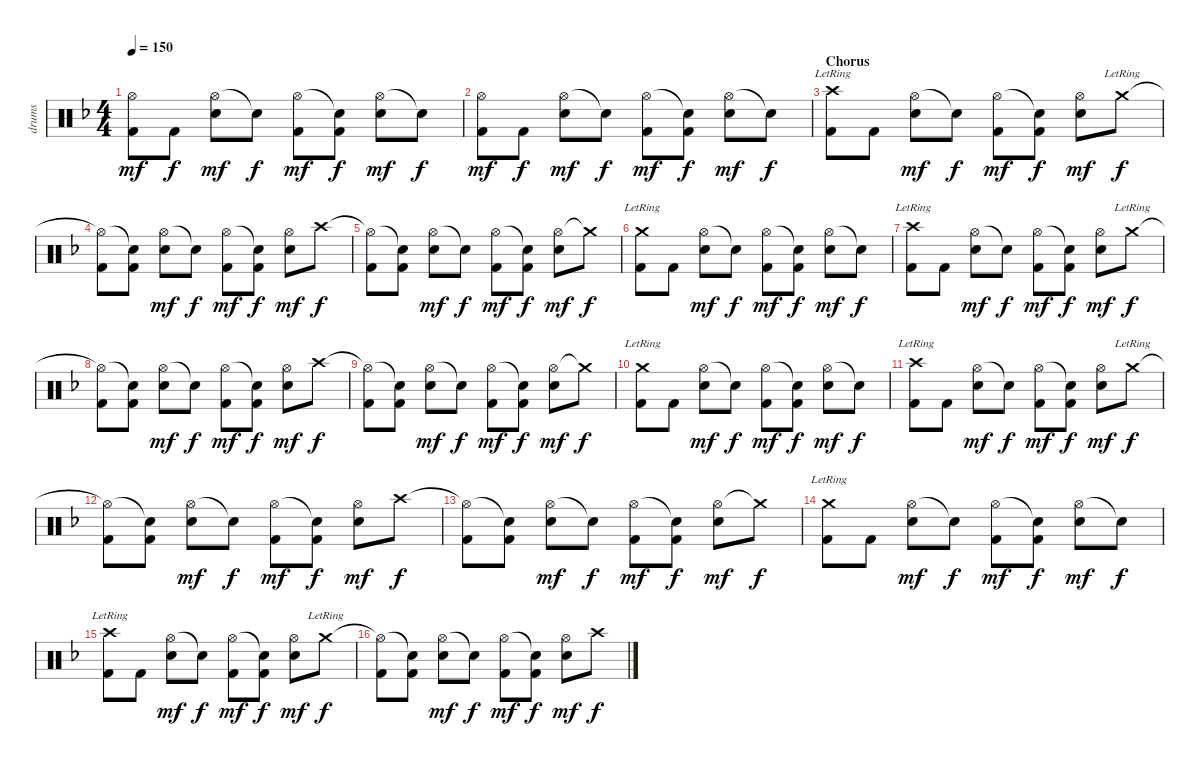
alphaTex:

\track ("drums" "drums") {instrument percussion}
\staff {score}
\articulation defaults
\ts (4 4)
\tempo 150
\clef neutral
\ks dminor
("Hi-Hat (open)" "Kick (hit) 2").8{dy mf} "Kick (hit) 2".8{dy f} ("Hi-Hat (open)" "Electric Snare (hit)").8{dy mf} "Snare (hit)"{t}.8{dy f} ("Hi-Hat (open)" "Kick (hit) 2").8{dy mf} ("Snare (hit)"{t} "Kick (hit) 2").8{dy f} ("Hi-Hat (open)" "Electric Snare (hit)").8{dy mf} "Snare (hit)"{t}.8{dy f} |
("Hi-Hat (open)" "Kick (hit) 2").8{dy mf} "Kick (hit) 2".8{dy f} ("Hi-Hat (open)" "Electric Snare (hit)").8{dy mf} "Snare (hit)"{t}.8{dy f} ("Hi-Hat (open)" "Kick (hit) 2").8{dy mf} ("Snare (hit)"{t} "Kick (hit) 2").8{dy f} ("Hi-Hat (open)" "Electric Snare (hit)").8{dy mf} "Snare (hit)"{t}.8{dy f} |
\section ("" "Chorus")
("Crash high (hit)"{lr} "Kick (hit) 2").8 "Kick (hit) 2".8 ("Hi-Hat (open)" "Electric Snare (hit)").8{dy mf} "Snare (hit)"{t}.8{dy f} ("Hi-Hat (open)" "Kick (hit) 2").8{dy mf} ("Snare (hit)"{t} "Kick (hit) 2").8{dy f} ("Hi-Hat (open)" "Electric Snare (hit)").8{dy mf} "Crash medium (hit)"{lr}.8{dy f} |
("Hi-Hat (open)"{t} "Kick (hit) 2").8 ("Snare (hit)"{t} "Kick (hit) 2").8 ("Hi-Hat (open)" "Electric Snare (hit)").8{dy mf} "Snare (hit)"{t}.8{dy f} ("Hi-Hat (open)" "Kick (hit) 2").8{dy mf} ("Snare (hit)"{t} "Kick (hit) 2").8{dy f} ("Hi-Hat (open)" "Electric Snare (hit)").8{dy mf} "Crash high (hit)".8{dy f} |
("Hi-Hat (open)"{t} "Kick (hit) 2").8 ("Snare (hit)"{t} "Kick (hit) 2").8 ("Hi-Hat (open)" "Electric Snare (hit)").8{dy mf} "Snare (hit)"{t}.8{dy f} ("Hi-Hat (open)" "Kick (hit) 2").8{dy mf} ("Snare (hit)"{t} "Kick (hit) 2").8{dy f} ("Hi-Hat (open)" "Electric Snare (hit)").8{dy mf} "Crash medium (hit)"{t}.8{dy f} |
("Crash medium (hit)"{lr} "Kick (hit) 2").8 "Kick (hit) 2".8 ("Hi-Hat (open)" "Electric Snare (hit)").8{dy mf} "Snare (hit)"{t}.8{dy f} ("Hi-Hat (open)" "Kick (hit) 2").8{dy mf} ("Snare (hit)"{t} "Kick (hit) 2").8{dy f} ("Hi-Hat (open)" "Electric Snare (hit)").8{dy mf} "Snare (hit)"{t}.8{dy f} |
("Crash high (hit)"{lr} "Kick (hit) 2").8 "Kick (hit) 2".8 ("Hi-Hat (open)" "Electric Snare (hit)").8{dy mf} "Snare (hit)"{t}.8{dy f} ("Hi-Hat (open)" "Kick (hit) 2").8{dy mf} ("Snare (hit)"{t} "Kick (hit) 2").8{dy f} ("Hi-Hat (open)" "Electric Snare (hit)").8{dy mf} "Crash medium (hit)"{lr}.8{dy f} |
("Hi-Hat (open)"{t} "Kick (hit) 2").8 ("Snare (hit)"{t} "Kick (hit) 2").8 ("Hi-Hat (open)" "Electric Snare (hit)").8{dy mf} "Snare (hit)"{t}.8{dy f} ("Hi-Hat (open)" "Kick (hit) 2").8{dy mf} ("Snare (hit)"{t} "Kick (hit) 2").8{dy f} ("Hi-Hat (open)" "Electric Snare (hit)").8{dy mf} "Crash high (hit)".8{dy f} |
("Hi-Hat (open)"{t} "Kick (hit) 2").8 ("Snare (hit)"{t} "Kick (hit) 2").8 ("Hi-Hat (open)" "Electric Snare (hit)").8{dy mf} "Snare (hit)"{t}.8{dy f} ("Hi-Hat (open)" "Kick (hit) 2").8{dy mf} ("Snare (hit)"{t} "Kick (hit) 2").8{dy f} ("Hi-Hat (open)" "Electric Snare (hit)").8{dy mf} "Crash medium (hit)"{t}.8{dy f} |
("Crash medium (hit)"{lr} "Kick (hit) 2").8 "Kick (hit) 2".8 ("Hi-Hat (open)" "Electric Snare (hit)").8{dy mf} "Snare (hit)"{t}.8{dy f} ("Hi-Hat (open)" "Kick (hit) 2").8{dy mf} ("Snare (hit)"{t} "Kick (hit) 2").8{dy f} ("Hi-Hat (open)" "Electric Snare (hit)").8{dy mf} "Snare (hit)"{t}.8{dy f} |
("Crash high (hit)"{lr} "Kick (hit) 2").8 "Kick (hit) 2".8 ("Hi-Hat (open)" "Electric Snare (hit)").8{dy mf} "Snare (hit)"{t}.8{dy f} ("Hi-Hat (open)" "Kick (hit) 2").8{dy mf} ("Snare (hit)"{t} "Kick (hit) 2").8{dy f} ("Hi-Hat (open)" "Electric Snare (hit)").8{dy mf} "Crash medium (hit)"{lr}.8{dy f} |
("Hi-Hat (open)"{t} "Kick (hit) 2").8 ("Snare (hit)"{t} "Kick (hit) 2").8 ("Hi-Hat (open)" "Electric Snare (hit)").8{dy mf} "Snare (hit)"{t}.8{dy f} ("Hi-Hat (open)" "Kick (hit) 2").8{dy mf} ("Snare (hit)"{t} "Kick (hit) 2").8{dy f} ("Hi-Hat (open)" "Electric Snare (hit)").8{dy mf} "Crash high (hit)".8{dy f} |
("Hi-Hat (open)"{t} "Kick (hit) 2").8 ("Snare (hit)"{t} "Kick (hit) 2").8 ("Hi-Hat (open)" "Electric Snare (hit)").8{dy mf} "Snare (hit)"{t}.8{dy f} ("Hi-Hat (open)" "Kick (hit) 2").8{dy mf} ("Snare (hit)"{t} "Kick (hit) 2").8{dy f} ("Hi-Hat (open)" "Electric Snare (hit)").8{dy mf} "Crash medium (hit)"{t}.8{dy f} |
("Crash medium (hit)"{lr} "Kick (hit) 2").8 "Kick (hit) 2".8 ("Hi-Hat (open)" "Electric Snare (hit)").8{dy mf} "Snare (hit)"{t}.8{dy f} ("Hi-Hat (open)" "Kick (hit) 2").8{dy mf} ("Snare (hit)"{t} "Kick (hit) 2").8{dy f} ("Hi-Hat (open)" "Electric Snare (hit)").8{dy mf} "Snare (hit)"{t}.8{dy f} |
("Crash high (hit)"{lr} "Kick (hit) 2").8 "Kick (hit) 2".8 ("Hi-Hat (open)" "Electric Snare (hit)").8{dy mf} "Snare (hit)"{t}.8{dy f} ("Hi-Hat (open)" "Kick (hit) 2").8{dy mf} ("Snare (hit)"{t} "Kick (hit) 2").8{dy f} ("Hi-Hat (open)" "Electric Snare (hit)").8{dy mf} "Crash medium (hit)"{lr}.8{dy f} |
("Hi-Hat (open)"{t} "Kick (hit) 2").8 ("Snare (hit)"{t} "Kick (hit) 2").8 ("Hi-Hat (open)" "Electric Snare (hit)").8{dy mf} "Snare (hit)"{t}.8{dy f} ("Hi-Hat (open)" "Kick (hit) 2").8{dy mf} ("Snare (hit)"{t} "Kick (hit) 2").8{dy f} ("Hi-Hat (open)" "Electric Snare (hit)").8{dy mf} "Crash high (hit)".8{dy f}
